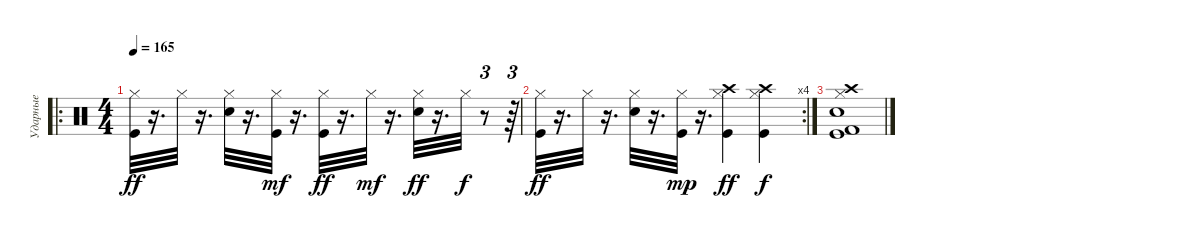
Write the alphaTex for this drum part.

\track ("Ударные" "Ударные") {instrument percussion}
\staff {score}
\articulation defaults
\ro
\ts (4 4)
\tempo 165
\clef neutral
\ks c
("Kick (hit)" "Hi-Hat (closed)").32{dy ff} r.16{d} "Hi-Hat (closed)".32 r.16{d} ("Hi-Hat (closed)" "Electric Snare (hit)").32 r.16{d} ("Kick (hit)" "Hi-Hat (closed)").32{dy mf} r.16{d} ("Kick (hit)" "Hi-Hat (closed)").32{dy ff} r.16{d} "Hi-Hat (closed)".32{dy mf} r.16{d} ("Hi-Hat (closed)" "Electric Snare (hit)").32{dy ff} r.16{d} "Hi-Hat (closed)".32{dy f} r.8{tu (3 2)} r.64{tu (3 2)} |
\rc 4
("Kick (hit)" "Hi-Hat (closed)").32{dy ff} r.16{d} "Hi-Hat (closed)".32 r.16{d} ("Hi-Hat (closed)" "Electric Snare (hit)").32 r.16{d} ("Kick (hit)" "Hi-Hat (closed)").32{dy mp} r.16{d} ("Kick (hit)" "Hi-Hat (closed)" "Crash high (hit)").4{dy ff} ("Kick (hit)" "Hi-Hat (closed)" "Crash high (hit)").4{dy f} |
("Electric Snare (hit)" "Crash high (hit)" "Kick (hit) 2" "Kick (hit)" "Hi-Hat (closed)").1
